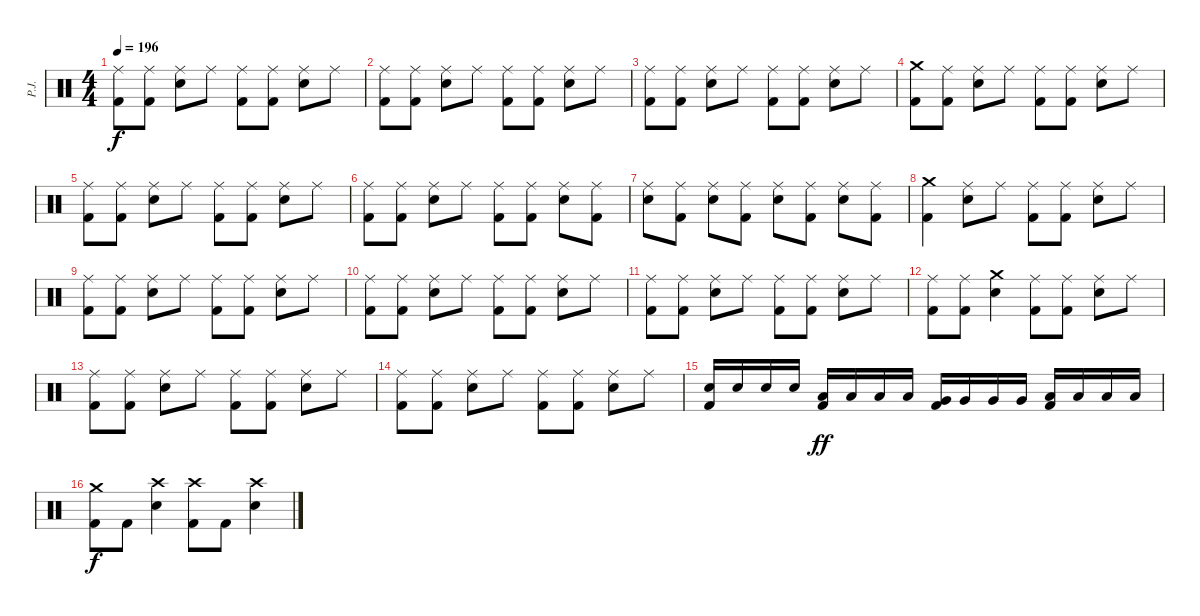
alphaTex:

\track ("P.J." "P.J.") {instrument percussion}
\staff {score}
\articulation defaults
\ts (4 4)
\tempo 196
\clef neutral
\ks c
("Ride (middle)" "Kick (hit) 2").8{dy f} ("Ride (middle)" "Kick (hit) 2").8 ("Ride (middle)" "Snare (hit) 2").8 "Ride (middle)".8 ("Ride (middle)" "Kick (hit) 2").8 ("Ride (middle)" "Kick (hit) 2").8 ("Ride (middle)" "Snare (hit) 2").8 "Ride (middle)".8 |
("Ride (middle)" "Kick (hit) 2").8 ("Ride (middle)" "Kick (hit) 2").8 ("Ride (middle)" "Snare (hit) 2").8 "Ride (middle)".8 ("Ride (middle)" "Kick (hit) 2").8 ("Ride (middle)" "Kick (hit) 2").8 ("Ride (middle)" "Snare (hit) 2").8 "Ride (middle)".8 |
("Ride (middle)" "Kick (hit) 2").8 ("Ride (middle)" "Kick (hit) 2").8 ("Ride (middle)" "Snare (hit) 2").8 "Ride (middle)".8 ("Ride (middle)" "Kick (hit) 2").8 ("Ride (middle)" "Kick (hit) 2").8 ("Ride (middle)" "Snare (hit) 2").8 "Ride (middle)".8 |
("Crash medium (hit)" "Kick (hit) 2").8 ("Ride (middle)" "Kick (hit) 2").8 ("Ride (middle)" "Snare (hit) 2").8 "Ride (middle)".8 ("Ride (middle)" "Kick (hit) 2").8 ("Ride (middle)" "Kick (hit) 2").8 ("Ride (middle)" "Snare (hit) 2").8 "Ride (middle)".8 |
("Ride (middle)" "Kick (hit) 2").8 ("Ride (middle)" "Kick (hit) 2").8 ("Ride (middle)" "Snare (hit) 2").8 "Ride (middle)".8 ("Ride (middle)" "Kick (hit) 2").8 ("Ride (middle)" "Kick (hit) 2").8 ("Ride (middle)" "Snare (hit) 2").8 "Ride (middle)".8 |
("Ride (middle)" "Kick (hit) 2").8 ("Ride (middle)" "Kick (hit) 2").8 ("Ride (middle)" "Snare (hit) 2").8 "Ride (middle)".8 ("Ride (middle)" "Kick (hit) 2").8 ("Ride (middle)" "Kick (hit) 2").8 ("Ride (middle)" "Snare (hit) 2").8 ("Ride (middle)" "Kick (hit) 2").8 |
("Ride (middle)" "Snare (hit) 2").8 ("Ride (middle)" "Kick (hit) 2").8 ("Ride (middle)" "Snare (hit) 2").8 ("Ride (middle)" "Kick (hit) 2").8 ("Ride (middle)" "Snare (hit) 2").8 ("Ride (middle)" "Kick (hit) 2").8 ("Ride (middle)" "Snare (hit) 2").8 ("Ride (middle)" "Kick (hit) 2").8 |
("Crash medium (hit)" "Kick (hit) 2").4 ("Ride (middle)" "Snare (hit) 2").8 "Ride (middle)".8 ("Ride (middle)" "Kick (hit) 2").8 ("Ride (middle)" "Kick (hit) 2").8 ("Ride (middle)" "Snare (hit) 2").8 "Ride (middle)".8 |
("Ride (middle)" "Kick (hit) 2").8 ("Ride (middle)" "Kick (hit) 2").8 ("Ride (middle)" "Snare (hit) 2").8 "Ride (middle)".8 ("Ride (middle)" "Kick (hit) 2").8 ("Ride (middle)" "Kick (hit) 2").8 ("Ride (middle)" "Snare (hit) 2").8 "Ride (middle)".8 |
("Ride (middle)" "Kick (hit) 2").8 ("Ride (middle)" "Kick (hit) 2").8 ("Ride (middle)" "Snare (hit) 2").8 "Ride (middle)".8 ("Ride (middle)" "Kick (hit) 2").8 ("Ride (middle)" "Kick (hit) 2").8 ("Ride (middle)" "Snare (hit) 2").8 "Ride (middle)".8 |
("Ride (middle)" "Kick (hit) 2").8 ("Ride (middle)" "Kick (hit) 2").8 ("Ride (middle)" "Snare (hit) 2").8 "Ride (middle)".8 ("Ride (middle)" "Kick (hit) 2").8 ("Ride (middle)" "Kick (hit) 2").8 ("Ride (middle)" "Snare (hit) 2").8 "Ride (middle)".8 |
("Ride (middle)" "Kick (hit) 2").8 ("Ride (middle)" "Kick (hit) 2").8 ("Crash medium (hit)" "Snare (hit) 2").4 ("Ride (middle)" "Kick (hit) 2").8 ("Ride (middle)" "Kick (hit) 2").8 ("Ride (middle)" "Snare (hit) 2").8 "Ride (middle)".8 |
("Ride (middle)" "Kick (hit) 2").8 ("Ride (middle)" "Kick (hit) 2").8 ("Ride (middle)" "Snare (hit) 2").8 "Ride (middle)".8 ("Ride (middle)" "Kick (hit) 2").8 ("Ride (middle)" "Kick (hit) 2").8 ("Ride (middle)" "Snare (hit) 2").8 "Ride (middle)".8 |
("Ride (middle)" "Kick (hit) 2").8 ("Ride (middle)" "Kick (hit) 2").8 ("Ride (middle)" "Snare (hit) 2").8 "Ride (middle)".8 ("Ride (middle)" "Kick (hit) 2").8 ("Ride (middle)" "Kick (hit) 2").8 ("Ride (middle)" "Snare (hit) 2").8 "Ride (middle)".8 |
("Snare (hit) 2" "Kick (hit) 2").16 "Snare (hit) 2".16 "Snare (hit) 2".16 "Snare (hit) 2".16 ("Low Tom (hit)" "Kick (hit) 2").16{dy ff} "Low Tom (hit)".16 "Low Tom (hit)".16 "Low Tom (hit)".16 ("Very Low Tom (hit)" "Kick (hit) 2").16 "Very Low Tom (hit)".16 "Very Low Tom (hit)".16 "Very Low Tom (hit)".16 ("Low Floor Tom (hit)" "Kick (hit) 2").16 "Low Floor Tom (hit)".16 "Low Floor Tom (hit)".16 "Low Floor Tom (hit)".16 |
("Crash medium (hit)" "Kick (hit) 2").8{dy f} "Kick (hit) 2".8 ("Crash high (hit)" "Snare (hit) 2").4 ("Crash high (hit)" "Kick (hit) 2").8 "Kick (hit) 2".8 ("Crash high (hit)" "Snare (hit) 2").4
